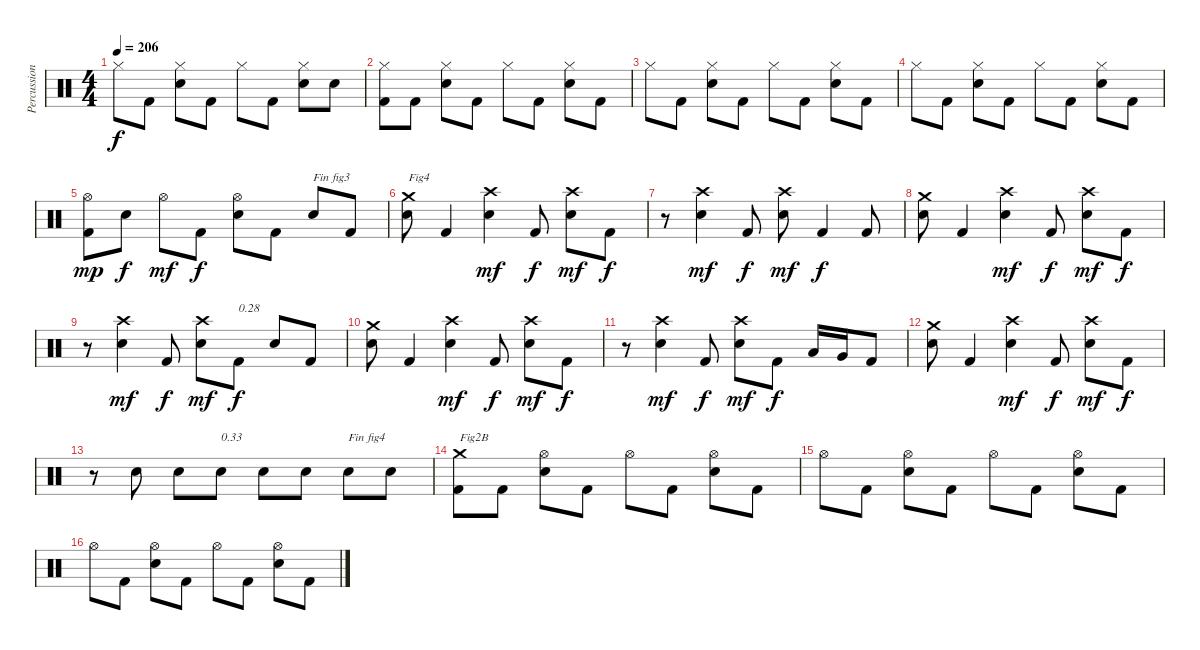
\track ("Percussions" "Percussion") {instrument percussion}
\staff {score}
\articulation defaults
\ts (4 4)
\tempo 206
\clef neutral
\ks c "Hi-Hat (closed)".8{dy f} "Kick (hit) 2".8
("Electric Snare (hit)" "Hi-Hat (closed)").8 "Kick (hit) 2".8 "Hi-Hat (closed)".8 "Kick (hit) 2".8 ("Electric Snare (hit)" "Hi-Hat (closed)").8 "Electric Snare (hit)".8 |
("Kick (hit) 2" "Hi-Hat (closed)").8 "Kick (hit) 2".8 ("Electric Snare (hit)" "Hi-Hat (closed)").8 "Kick (hit) 2".8 "Hi-Hat (closed)".8 "Kick (hit) 2".8 ("Electric Snare (hit)" "Hi-Hat (closed)").8 "Kick (hit) 2".8 |
"Hi-Hat (closed)".8 "Kick (hit) 2".8 ("Electric Snare (hit)" "Hi-Hat (closed)").8 "Kick (hit) 2".8 "Hi-Hat (closed)".8 "Kick (hit) 2".8 ("Electric Snare (hit)" "Hi-Hat (closed)").8 "Kick (hit) 2".8 |
"Hi-Hat (closed)".8 "Kick (hit) 2".8 ("Electric Snare (hit)" "Hi-Hat (closed)").8 "Kick (hit) 2".8 "Hi-Hat (closed)".8 "Kick (hit) 2".8 ("Electric Snare (hit)" "Hi-Hat (closed)").8 "Kick (hit) 2".8 |
("Kick (hit) 2" "Hi-Hat (open)").8{dy mp} "Electric Snare (hit)".8{dy f} "Hi-Hat (open)".8{dy mf} "Kick (hit) 2".8{dy f} ("Electric Snare (hit)" "Hi-Hat (open)").8 "Kick (hit) 2".8 "Electric Snare (hit)".8{txt "Fin fig3"} "Kick (hit) 2".8 |
("Electric Snare (hit)" "Crash medium (hit)").8{txt "Fig4"} "Kick (hit) 2".4 ("Electric Snare (hit)" "Crash high (hit)").4{dy mf} "Kick (hit) 2".8{dy f} ("Electric Snare (hit)" "Crash high (hit)").8{dy mf} "Kick (hit) 2".8{dy f} |
r.8 ("Electric Snare (hit)" "Crash high (hit)").4{dy mf} "Kick (hit) 2".8{dy f} ("Electric Snare (hit)" "Crash high (hit)").8{dy mf} "Kick (hit) 2".4{dy f} "Kick (hit) 2".8 |
("Electric Snare (hit)" "Crash medium (hit)").8 "Kick (hit) 2".4 ("Electric Snare (hit)" "Crash high (hit)").4{dy mf} "Kick (hit) 2".8{dy f} ("Electric Snare (hit)" "Crash high (hit)").8{dy mf} "Kick (hit) 2".8{dy f} |
r.8 ("Electric Snare (hit)" "Crash high (hit)").4{dy mf} "Kick (hit) 2".8{dy f} ("Electric Snare (hit)" "Crash high (hit)").8{dy mf} "Kick (hit) 2".8{txt "0.28" dy f} "Electric Snare (hit)".8 "Kick (hit) 2".8 |
("Electric Snare (hit)" "Crash medium (hit)").8 "Kick (hit) 2".4 ("Electric Snare (hit)" "Crash high (hit)").4{dy mf} "Kick (hit) 2".8{dy f} ("Electric Snare (hit)" "Crash high (hit)").8{dy mf} "Kick (hit) 2".8{dy f} |
r.8 ("Electric Snare (hit)" "Crash high (hit)").4{dy mf} "Kick (hit) 2".8{dy f} ("Electric Snare (hit)" "Crash high (hit)").8{dy mf} "Kick (hit) 2".8{dy f} "Low Tom (hit)".16 "Very Low Tom (hit)".16 "Kick (hit) 2".8 |
("Electric Snare (hit)" "Crash medium (hit)").8 "Kick (hit) 2".4 ("Electric Snare (hit)" "Crash high (hit)").4{dy mf} "Kick (hit) 2".8{dy f} ("Electric Snare (hit)" "Crash high (hit)").8{dy mf} "Kick (hit) 2".8{dy f} |
r.8 "Electric Snare (hit)".8 "Electric Snare (hit)".8 "Electric Snare (hit)".8{txt "0.33"} "Electric Snare (hit)".8 "Electric Snare (hit)".8 "Electric Snare (hit)".8{txt "Fin fig4"} "Electric Snare (hit)".8 |
("Kick (hit) 2" "Crash medium (hit)").8{txt "Fig2B"} "Kick (hit) 2".8 ("Electric Snare (hit)" "Hi-Hat (open)").8 "Kick (hit) 2".8 "Hi-Hat (open)".8 "Kick (hit) 2".8 ("Electric Snare (hit)" "Hi-Hat (open)").8 "Kick (hit) 2".8 |
"Hi-Hat (open)".8 "Kick (hit) 2".8 ("Electric Snare (hit)" "Hi-Hat (open)").8 "Kick (hit) 2".8 "Hi-Hat (open)".8 "Kick (hit) 2".8 ("Electric Snare (hit)" "Hi-Hat (open)").8 "Kick (hit) 2".8 |
"Hi-Hat (open)".8 "Kick (hit) 2".8 ("Electric Snare (hit)" "Hi-Hat (open)").8 "Kick (hit) 2".8 "Hi-Hat (open)".8 "Kick (hit) 2".8 ("Electric Snare (hit)" "Hi-Hat (open)").8 "Kick (hit) 2".8
